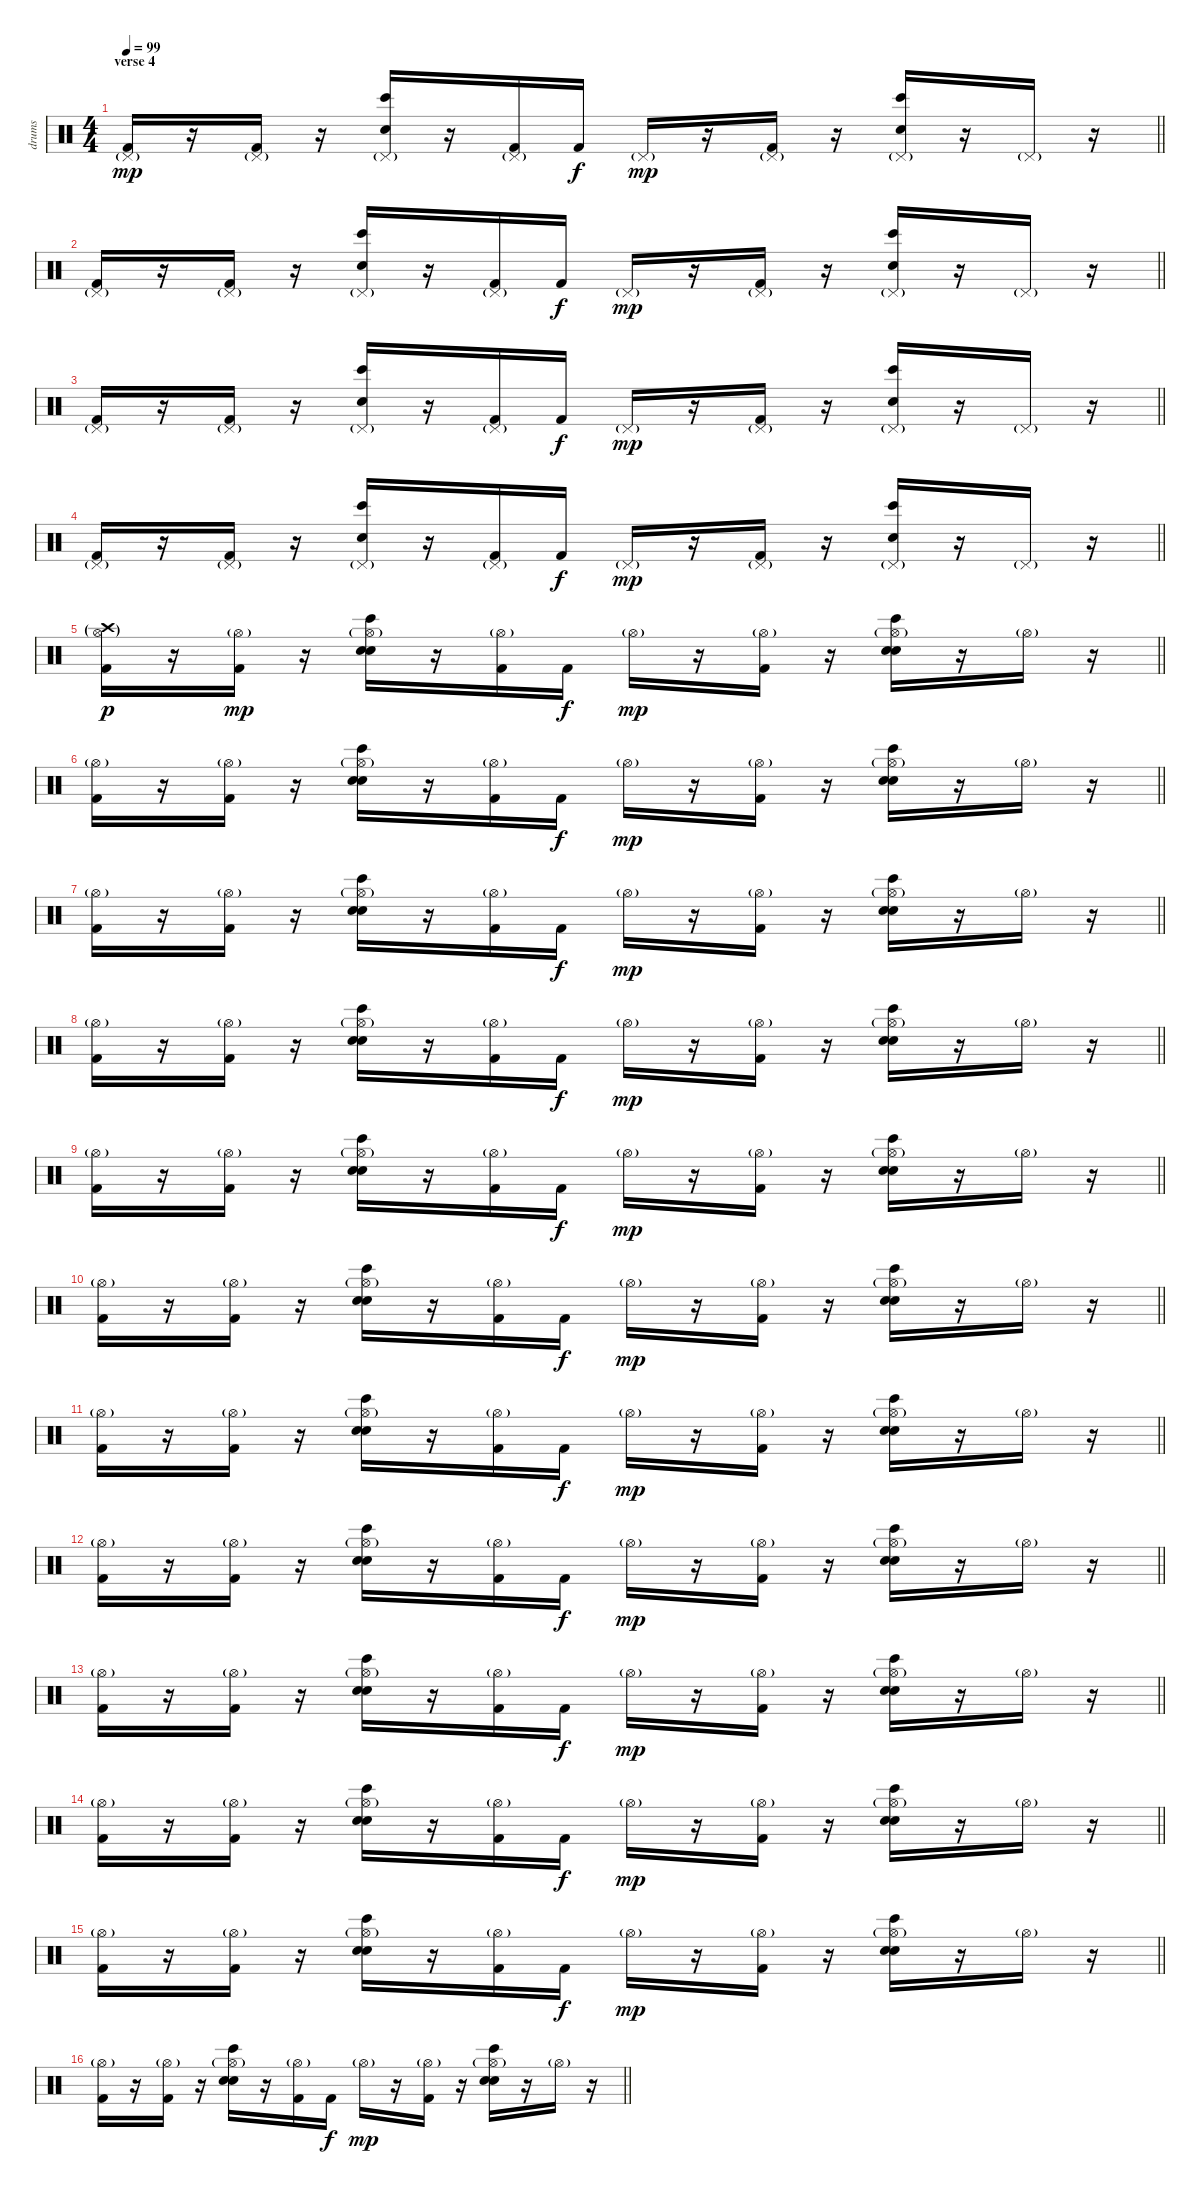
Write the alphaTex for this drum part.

\track ("drums" "drums") {instrument percussion}
\staff {score}
\articulation defaults
\ts (4 4)
\section ("" "verse 4")
\tempo 99
\clef neutral
\barLineRight lightlight
\ks c
("Kick (hit) 2" "Pedal Hi-Hat (hit)"{g}).16{dy mp} r.16 ("Kick (hit) 2" "Pedal Hi-Hat (hit)"{g}).16 r.16 ("Bongo High (hit)" "Hand Clap (hit)" "Pedal Hi-Hat (hit)"{g}).16 r.16 ("Kick (hit) 2" "Pedal Hi-Hat (hit)"{g}).16 "Kick (hit) 2".16{dy f} "Pedal Hi-Hat (hit)"{g}.16{dy mp} r.16 ("Kick (hit) 2" "Pedal Hi-Hat (hit)"{g}).16 r.16 ("Bongo High (hit)" "Hand Clap (hit)" "Pedal Hi-Hat (hit)"{g}).16 r.16 "Pedal Hi-Hat (hit)"{g}.16 r.16 |
\barLineRight lightlight
("Kick (hit) 2" "Pedal Hi-Hat (hit)"{g}).16 r.16 ("Kick (hit) 2" "Pedal Hi-Hat (hit)"{g}).16 r.16 ("Bongo High (hit)" "Hand Clap (hit)" "Pedal Hi-Hat (hit)"{g}).16 r.16 ("Kick (hit) 2" "Pedal Hi-Hat (hit)"{g}).16 "Kick (hit) 2".16{dy f} "Pedal Hi-Hat (hit)"{g}.16{dy mp} r.16 ("Kick (hit) 2" "Pedal Hi-Hat (hit)"{g}).16 r.16 ("Bongo High (hit)" "Hand Clap (hit)" "Pedal Hi-Hat (hit)"{g}).16 r.16 "Pedal Hi-Hat (hit)"{g}.16 r.16 |
\barLineRight lightlight
("Kick (hit) 2" "Pedal Hi-Hat (hit)"{g}).16 r.16 ("Kick (hit) 2" "Pedal Hi-Hat (hit)"{g}).16 r.16 ("Bongo High (hit)" "Hand Clap (hit)" "Pedal Hi-Hat (hit)"{g}).16 r.16 ("Kick (hit) 2" "Pedal Hi-Hat (hit)"{g}).16 "Kick (hit) 2".16{dy f} "Pedal Hi-Hat (hit)"{g}.16{dy mp} r.16 ("Kick (hit) 2" "Pedal Hi-Hat (hit)"{g}).16 r.16 ("Bongo High (hit)" "Hand Clap (hit)" "Pedal Hi-Hat (hit)"{g}).16 r.16 "Pedal Hi-Hat (hit)"{g}.16 r.16 |
\barLineRight lightlight
("Kick (hit) 2" "Pedal Hi-Hat (hit)"{g}).16 r.16 ("Kick (hit) 2" "Pedal Hi-Hat (hit)"{g}).16 r.16 ("Bongo High (hit)" "Hand Clap (hit)" "Pedal Hi-Hat (hit)"{g}).16 r.16 ("Kick (hit) 2" "Pedal Hi-Hat (hit)"{g}).16 "Kick (hit) 2".16{dy f} "Pedal Hi-Hat (hit)"{g}.16{dy mp} r.16 ("Kick (hit) 2" "Pedal Hi-Hat (hit)"{g}).16 r.16 ("Bongo High (hit)" "Hand Clap (hit)" "Pedal Hi-Hat (hit)"{g}).16 r.16 "Pedal Hi-Hat (hit)"{g}.16 r.16 |
\barLineRight lightlight
("Kick (hit) 2" "Hi-Hat (open)"{g} "Crash high (hit)"{g}).16{dy p} r.16 ("Kick (hit) 2" "Hi-Hat (open)"{g}).16{dy mp} r.16 ("Bongo High (hit)" "Hand Clap (hit)" "Electric Snare (hit)" "Hi-Hat (open)"{g}).16 r.16 ("Kick (hit) 2" "Hi-Hat (open)"{g}).16 "Kick (hit) 2".16{dy f} "Hi-Hat (open)"{g}.16{dy mp} r.16 ("Kick (hit) 2" "Hi-Hat (open)"{g}).16 r.16 ("Bongo High (hit)" "Hand Clap (hit)" "Electric Snare (hit)" "Hi-Hat (open)"{g}).16 r.16 "Hi-Hat (open)"{g}.16 r.16 |
\barLineRight lightlight
("Kick (hit) 2" "Hi-Hat (open)"{g}).16 r.16 ("Kick (hit) 2" "Hi-Hat (open)"{g}).16 r.16 ("Bongo High (hit)" "Hand Clap (hit)" "Electric Snare (hit)" "Hi-Hat (open)"{g}).16 r.16 ("Kick (hit) 2" "Hi-Hat (open)"{g}).16 "Kick (hit) 2".16{dy f} "Hi-Hat (open)"{g}.16{dy mp} r.16 ("Kick (hit) 2" "Hi-Hat (open)"{g}).16 r.16 ("Bongo High (hit)" "Hand Clap (hit)" "Electric Snare (hit)" "Hi-Hat (open)"{g}).16 r.16 "Hi-Hat (open)"{g}.16 r.16 |
\barLineRight lightlight
("Kick (hit) 2" "Hi-Hat (open)"{g}).16 r.16 ("Kick (hit) 2" "Hi-Hat (open)"{g}).16 r.16 ("Bongo High (hit)" "Hand Clap (hit)" "Electric Snare (hit)" "Hi-Hat (open)"{g}).16 r.16 ("Kick (hit) 2" "Hi-Hat (open)"{g}).16 "Kick (hit) 2".16{dy f} "Hi-Hat (open)"{g}.16{dy mp} r.16 ("Kick (hit) 2" "Hi-Hat (open)"{g}).16 r.16 ("Bongo High (hit)" "Hand Clap (hit)" "Electric Snare (hit)" "Hi-Hat (open)"{g}).16 r.16 "Hi-Hat (open)"{g}.16 r.16 |
\barLineRight lightlight
("Kick (hit) 2" "Hi-Hat (open)"{g}).16 r.16 ("Kick (hit) 2" "Hi-Hat (open)"{g}).16 r.16 ("Bongo High (hit)" "Hand Clap (hit)" "Electric Snare (hit)" "Hi-Hat (open)"{g}).16 r.16 ("Kick (hit) 2" "Hi-Hat (open)"{g}).16 "Kick (hit) 2".16{dy f} "Hi-Hat (open)"{g}.16{dy mp} r.16 ("Kick (hit) 2" "Hi-Hat (open)"{g}).16 r.16 ("Bongo High (hit)" "Hand Clap (hit)" "Electric Snare (hit)" "Hi-Hat (open)"{g}).16 r.16 "Hi-Hat (open)"{g}.16 r.16 |
\barLineRight lightlight
("Kick (hit) 2" "Hi-Hat (open)"{g}).16 r.16 ("Kick (hit) 2" "Hi-Hat (open)"{g}).16 r.16 ("Bongo High (hit)" "Hand Clap (hit)" "Electric Snare (hit)" "Hi-Hat (open)"{g}).16 r.16 ("Kick (hit) 2" "Hi-Hat (open)"{g}).16 "Kick (hit) 2".16{dy f} "Hi-Hat (open)"{g}.16{dy mp} r.16 ("Kick (hit) 2" "Hi-Hat (open)"{g}).16 r.16 ("Bongo High (hit)" "Hand Clap (hit)" "Electric Snare (hit)" "Hi-Hat (open)"{g}).16 r.16 "Hi-Hat (open)"{g}.16 r.16 |
\barLineRight lightlight
("Kick (hit) 2" "Hi-Hat (open)"{g}).16 r.16 ("Kick (hit) 2" "Hi-Hat (open)"{g}).16 r.16 ("Bongo High (hit)" "Hand Clap (hit)" "Electric Snare (hit)" "Hi-Hat (open)"{g}).16 r.16 ("Kick (hit) 2" "Hi-Hat (open)"{g}).16 "Kick (hit) 2".16{dy f} "Hi-Hat (open)"{g}.16{dy mp} r.16 ("Kick (hit) 2" "Hi-Hat (open)"{g}).16 r.16 ("Bongo High (hit)" "Hand Clap (hit)" "Electric Snare (hit)" "Hi-Hat (open)"{g}).16 r.16 "Hi-Hat (open)"{g}.16 r.16 |
\barLineRight lightlight
("Kick (hit) 2" "Hi-Hat (open)"{g}).16 r.16 ("Kick (hit) 2" "Hi-Hat (open)"{g}).16 r.16 ("Bongo High (hit)" "Hand Clap (hit)" "Electric Snare (hit)" "Hi-Hat (open)"{g}).16 r.16 ("Kick (hit) 2" "Hi-Hat (open)"{g}).16 "Kick (hit) 2".16{dy f} "Hi-Hat (open)"{g}.16{dy mp} r.16 ("Kick (hit) 2" "Hi-Hat (open)"{g}).16 r.16 ("Bongo High (hit)" "Hand Clap (hit)" "Electric Snare (hit)" "Hi-Hat (open)"{g}).16 r.16 "Hi-Hat (open)"{g}.16 r.16 |
\barLineRight lightlight
("Kick (hit) 2" "Hi-Hat (open)"{g}).16 r.16 ("Kick (hit) 2" "Hi-Hat (open)"{g}).16 r.16 ("Bongo High (hit)" "Hand Clap (hit)" "Electric Snare (hit)" "Hi-Hat (open)"{g}).16 r.16 ("Kick (hit) 2" "Hi-Hat (open)"{g}).16 "Kick (hit) 2".16{dy f} "Hi-Hat (open)"{g}.16{dy mp} r.16 ("Kick (hit) 2" "Hi-Hat (open)"{g}).16 r.16 ("Bongo High (hit)" "Hand Clap (hit)" "Electric Snare (hit)" "Hi-Hat (open)"{g}).16 r.16 "Hi-Hat (open)"{g}.16 r.16 |
\barLineRight lightlight
("Kick (hit) 2" "Hi-Hat (open)"{g}).16 r.16 ("Kick (hit) 2" "Hi-Hat (open)"{g}).16 r.16 ("Bongo High (hit)" "Hand Clap (hit)" "Electric Snare (hit)" "Hi-Hat (open)"{g}).16 r.16 ("Kick (hit) 2" "Hi-Hat (open)"{g}).16 "Kick (hit) 2".16{dy f} "Hi-Hat (open)"{g}.16{dy mp} r.16 ("Kick (hit) 2" "Hi-Hat (open)"{g}).16 r.16 ("Bongo High (hit)" "Hand Clap (hit)" "Electric Snare (hit)" "Hi-Hat (open)"{g}).16 r.16 "Hi-Hat (open)"{g}.16 r.16 |
\barLineRight lightlight
("Kick (hit) 2" "Hi-Hat (open)"{g}).16 r.16 ("Kick (hit) 2" "Hi-Hat (open)"{g}).16 r.16 ("Bongo High (hit)" "Hand Clap (hit)" "Electric Snare (hit)" "Hi-Hat (open)"{g}).16 r.16 ("Kick (hit) 2" "Hi-Hat (open)"{g}).16 "Kick (hit) 2".16{dy f} "Hi-Hat (open)"{g}.16{dy mp} r.16 ("Kick (hit) 2" "Hi-Hat (open)"{g}).16 r.16 ("Bongo High (hit)" "Hand Clap (hit)" "Electric Snare (hit)" "Hi-Hat (open)"{g}).16 r.16 "Hi-Hat (open)"{g}.16 r.16 |
\barLineRight lightlight
("Kick (hit) 2" "Hi-Hat (open)"{g}).16 r.16 ("Kick (hit) 2" "Hi-Hat (open)"{g}).16 r.16 ("Bongo High (hit)" "Hand Clap (hit)" "Electric Snare (hit)" "Hi-Hat (open)"{g}).16 r.16 ("Kick (hit) 2" "Hi-Hat (open)"{g}).16 "Kick (hit) 2".16{dy f} "Hi-Hat (open)"{g}.16{dy mp} r.16 ("Kick (hit) 2" "Hi-Hat (open)"{g}).16 r.16 ("Bongo High (hit)" "Hand Clap (hit)" "Electric Snare (hit)" "Hi-Hat (open)"{g}).16 r.16 "Hi-Hat (open)"{g}.16 r.16 |
\barLineRight lightlight
("Kick (hit) 2" "Hi-Hat (open)"{g}).16 r.16 ("Kick (hit) 2" "Hi-Hat (open)"{g}).16 r.16 ("Bongo High (hit)" "Hand Clap (hit)" "Electric Snare (hit)" "Hi-Hat (open)"{g}).16 r.16 ("Kick (hit) 2" "Hi-Hat (open)"{g}).16 "Kick (hit) 2".16{dy f} "Hi-Hat (open)"{g}.16{dy mp} r.16 ("Kick (hit) 2" "Hi-Hat (open)"{g}).16 r.16 ("Bongo High (hit)" "Hand Clap (hit)" "Electric Snare (hit)" "Hi-Hat (open)"{g}).16 r.16 "Hi-Hat (open)"{g}.16 r.16
